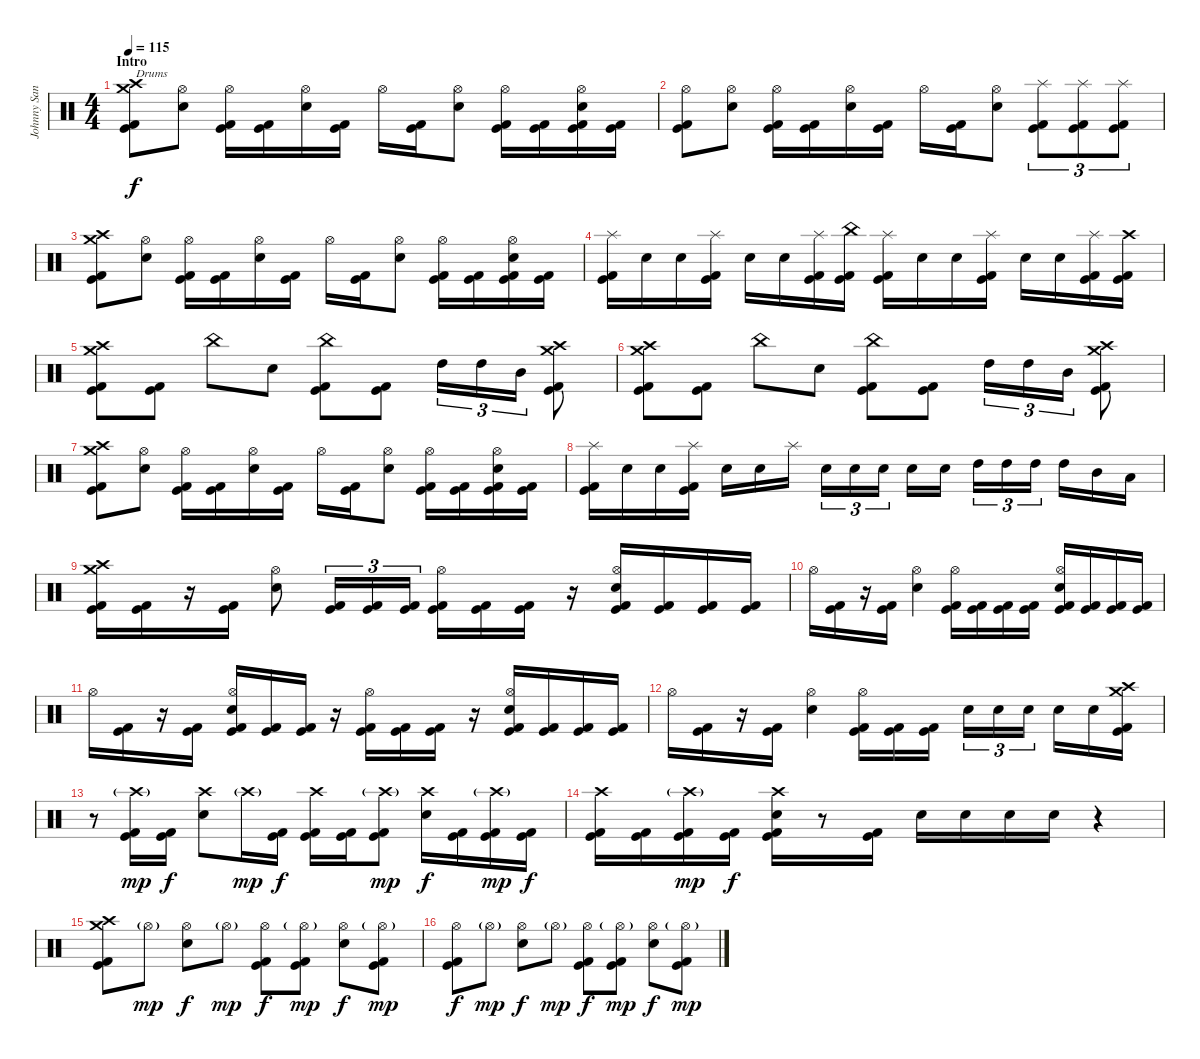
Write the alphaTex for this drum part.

\track ("Johnny Sandin" "Johnny San") {instrument percussion}
\staff {score}
\articulation defaults
\ts (4 4)
\section ("" "Intro")
\tempo 115
\clef neutral
\ks c
("Crash medium (hit)" "Crash high (hit)" "Kick (hit) 2" "Kick (hit)").8{txt "Drums" dy f} ("Hi-Hat (open)" "Snare (hit) 2").8 ("Hi-Hat (open)" "Kick (hit) 2" "Kick (hit)").16 ("Kick (hit) 2" "Kick (hit)").16 ("Hi-Hat (open)" "Snare (hit) 2").16 ("Kick (hit) 2" "Kick (hit)").16 "Hi-Hat (open)".16 ("Kick (hit) 2" "Kick (hit)").16 ("Hi-Hat (open)" "Snare (hit) 2").8 ("Hi-Hat (open)" "Kick (hit) 2" "Kick (hit)").16 ("Kick (hit) 2" "Kick (hit)").16 ("Hi-Hat (open)" "Snare (hit) 2" "Kick (hit) 2" "Kick (hit)").16 ("Kick (hit) 2" "Kick (hit)").16 |
("Hi-Hat (open)" "Kick (hit) 2" "Kick (hit)").8 ("Hi-Hat (open)" "Snare (hit) 2").8 ("Hi-Hat (open)" "Kick (hit) 2" "Kick (hit)").16 ("Kick (hit) 2" "Kick (hit)").16 ("Hi-Hat (open)" "Snare (hit) 2").16 ("Kick (hit) 2" "Kick (hit)").16 "Hi-Hat (open)".16 ("Kick (hit) 2" "Kick (hit)").16 ("Hi-Hat (open)" "Snare (hit) 2").8 ("Splash (hit)" "Kick (hit) 2" "Kick (hit)").8{tu (3 2)} ("Splash (hit)" "Kick (hit) 2" "Kick (hit)").8{tu (3 2)} ("Splash (hit)" "Kick (hit) 2" "Kick (hit)").8{tu (3 2)} |
("Crash medium (hit)" "Crash high (hit)" "Kick (hit) 2" "Kick (hit)").8 ("Hi-Hat (open)" "Snare (hit) 2").8 ("Hi-Hat (open)" "Kick (hit) 2" "Kick (hit)").16 ("Kick (hit) 2" "Kick (hit)").16 ("Hi-Hat (open)" "Snare (hit) 2").16 ("Kick (hit) 2" "Kick (hit)").16 "Hi-Hat (open)".16 ("Kick (hit) 2" "Kick (hit)").16 ("Hi-Hat (open)" "Snare (hit) 2").8 ("Hi-Hat (open)" "Kick (hit) 2" "Kick (hit)").16 ("Kick (hit) 2" "Kick (hit)").16 ("Hi-Hat (open)" "Snare (hit) 2" "Kick (hit) 2" "Kick (hit)").16 ("Kick (hit) 2" "Kick (hit)").16 |
("Splash (hit)" "Kick (hit) 2" "Kick (hit)").16 "Snare (hit) 2".16 "Snare (hit) 2".16 ("Splash (hit)" "Kick (hit) 2" "Kick (hit)").16 "Snare (hit) 2".16 "Snare (hit) 2".16 ("Splash (hit)" "Kick (hit) 2" "Kick (hit)").16 ("China (hit)" "Kick (hit) 2" "Kick (hit)").16 ("Splash (hit)" "Kick (hit) 2" "Kick (hit)").16 "Snare (hit) 2".16 "Snare (hit) 2".16 ("Splash (hit)" "Kick (hit) 2" "Kick (hit)").16 "Snare (hit) 2".16 "Snare (hit) 2".16 ("Splash (hit)" "Kick (hit) 2" "Kick (hit)").16 ("Crash high (hit)" "Kick (hit) 2" "Kick (hit)").16 |
("Crash medium (hit)" "Crash high (hit)" "Kick (hit) 2" "Kick (hit)").8 ("Kick (hit) 2" "Kick (hit)").8 "China (hit)".8 "Snare (hit) 2".8 ("China (hit)" "Kick (hit) 2" "Kick (hit)").8 ("Kick (hit) 2" "Kick (hit)").8 "High Tom (hit)".16{tu (3 2)} "High Tom (hit)".16{tu (3 2)} "Mid Tom (hit)".16{tu (3 2)} ("Crash medium (hit)" "Crash high (hit)" "Kick (hit) 2" "Kick (hit)").8 |
("Crash medium (hit)" "Crash high (hit)" "Kick (hit) 2" "Kick (hit)").8 ("Kick (hit) 2" "Kick (hit)").8 "China (hit)".8 "Snare (hit) 2".8 ("China (hit)" "Kick (hit) 2" "Kick (hit)").8 ("Kick (hit) 2" "Kick (hit)").8 "High Tom (hit)".16{tu (3 2)} "High Tom (hit)".16{tu (3 2)} "Mid Tom (hit)".16{tu (3 2)} ("Crash medium (hit)" "Crash high (hit)" "Kick (hit) 2" "Kick (hit)").8 |
("Crash medium (hit)" "Crash high (hit)" "Kick (hit) 2" "Kick (hit)").8 ("Hi-Hat (open)" "Snare (hit) 2").8 ("Hi-Hat (open)" "Kick (hit) 2" "Kick (hit)").16 ("Kick (hit) 2" "Kick (hit)").16 ("Hi-Hat (open)" "Snare (hit) 2").16 ("Kick (hit) 2" "Kick (hit)").16 "Hi-Hat (open)".16 ("Kick (hit) 2" "Kick (hit)").16 ("Hi-Hat (open)" "Snare (hit) 2").8 ("Hi-Hat (open)" "Kick (hit) 2" "Kick (hit)").16 ("Kick (hit) 2" "Kick (hit)").16 ("Hi-Hat (open)" "Snare (hit) 2" "Kick (hit) 2" "Kick (hit)").16 ("Kick (hit) 2" "Kick (hit)").16 |
("Splash (hit)" "Kick (hit) 2" "Kick (hit)").16 "Snare (hit) 2".16 "Snare (hit) 2".16 ("Splash (hit)" "Kick (hit) 2" "Kick (hit)").16 "Snare (hit) 2".16 "Snare (hit) 2".16 "Splash (hit)".16 "Snare (hit) 2".16{tu (3 2)} "Snare (hit) 2".16{tu (3 2)} "Snare (hit) 2".16{tu (3 2)} "Snare (hit) 2".16 "Snare (hit) 2".16 "High Tom (hit)".16{tu (3 2)} "High Tom (hit)".16{tu (3 2)} "High Tom (hit)".16{tu (3 2)} "High Tom (hit)".16 "Mid Tom (hit)".16 "Low Tom (hit)".16 |
("Crash medium (hit)" "Crash high (hit)" "Kick (hit) 2" "Kick (hit)").16 ("Kick (hit) 2" "Kick (hit)").16 r.16 ("Kick (hit) 2" "Kick (hit)").16 ("Hi-Hat (open)" "Snare (hit) 2").8 ("Kick (hit) 2" "Kick (hit)").16{tu (3 2)} ("Kick (hit) 2" "Kick (hit)").16{tu (3 2)} ("Kick (hit) 2" "Kick (hit)").16{tu (3 2)} ("Hi-Hat (open)" "Kick (hit) 2" "Kick (hit)").16 ("Kick (hit) 2" "Kick (hit)").16 ("Kick (hit) 2" "Kick (hit)").16 r.16 ("Hi-Hat (open)" "Snare (hit) 2" "Kick (hit) 2" "Kick (hit)").16 ("Kick (hit) 2" "Kick (hit)").16 ("Kick (hit) 2" "Kick (hit)").16 ("Kick (hit) 2" "Kick (hit)").16 |
"Hi-Hat (open)".16 ("Kick (hit) 2" "Kick (hit)").16 r.16 ("Kick (hit) 2" "Kick (hit)").16 ("Hi-Hat (open)" "Snare (hit) 2").4 ("Hi-Hat (open)" "Kick (hit) 2" "Kick (hit)").16 ("Kick (hit) 2" "Kick (hit)").16 ("Kick (hit) 2" "Kick (hit)").16 ("Kick (hit) 2" "Kick (hit)").16 ("Hi-Hat (open)" "Snare (hit) 2" "Kick (hit) 2" "Kick (hit)").16 ("Kick (hit) 2" "Kick (hit)").16 ("Kick (hit) 2" "Kick (hit)").16 ("Kick (hit) 2" "Kick (hit)").16 |
"Hi-Hat (open)".16 ("Kick (hit) 2" "Kick (hit)").16 r.16 ("Kick (hit) 2" "Kick (hit)").16 ("Hi-Hat (open)" "Snare (hit) 2" "Kick (hit) 2" "Kick (hit)").16 ("Kick (hit) 2" "Kick (hit)").16 ("Kick (hit) 2" "Kick (hit)").16 r.16 ("Hi-Hat (open)" "Kick (hit) 2" "Kick (hit)").16 ("Kick (hit) 2" "Kick (hit)").16 ("Kick (hit) 2" "Kick (hit)").16 r.16 ("Hi-Hat (open)" "Snare (hit) 2" "Kick (hit) 2" "Kick (hit)").16 ("Kick (hit) 2" "Kick (hit)").16 ("Kick (hit) 2" "Kick (hit)").16 ("Kick (hit) 2" "Kick (hit)").16 |
"Hi-Hat (open)".16 ("Kick (hit) 2" "Kick (hit)").16 r.16 ("Kick (hit) 2" "Kick (hit)").16 ("Hi-Hat (open)" "Snare (hit) 2").4 ("Hi-Hat (open)" "Kick (hit) 2" "Kick (hit)").16 ("Kick (hit) 2" "Kick (hit)").16 ("Kick (hit) 2" "Kick (hit)").16 "Snare (hit) 2".16{tu (3 2)} "Snare (hit) 2".16{tu (3 2)} "Snare (hit) 2".16{tu (3 2)} "Snare (hit) 2".16 "Snare (hit) 2".16 ("Crash medium (hit)" "Crash high (hit)" "Kick (hit) 2" "Kick (hit)").16 |
r.8 ("Crash high (hit)"{g} "Kick (hit) 2" "Kick (hit)").16{dy mp} ("Kick (hit) 2" "Kick (hit)").16{dy f} ("Crash high (hit)" "Snare (hit) 2").8 "Crash high (hit)"{g}.16{dy mp} ("Kick (hit) 2" "Kick (hit)").16{dy f} ("Crash high (hit)" "Kick (hit) 2" "Kick (hit)").16 ("Kick (hit) 2" "Kick (hit)").16 ("Crash high (hit)"{g} "Kick (hit) 2" "Kick (hit)").8{dy mp} ("Crash high (hit)" "Snare (hit) 2").16{dy f} ("Kick (hit) 2" "Kick (hit)").16 ("Crash high (hit)"{g} "Kick (hit) 2" "Kick (hit)").16{dy mp} ("Kick (hit) 2" "Kick (hit)").16{dy f} |
("Crash high (hit)" "Kick (hit) 2" "Kick (hit)").16 ("Kick (hit) 2" "Kick (hit)").16 ("Crash high (hit)"{g} "Kick (hit) 2" "Kick (hit)").16{dy mp} ("Kick (hit) 2" "Kick (hit)").16{dy f} ("Crash high (hit)" "Snare (hit) 2" "Kick (hit) 2" "Kick (hit)").16 r.8 ("Kick (hit) 2" "Kick (hit)").16 "Snare (hit) 2".16 "Snare (hit) 2".16 "Snare (hit) 2".16 "Snare (hit) 2".16 r.4 |
("Crash medium (hit)" "Crash high (hit)" "Kick (hit) 2" "Kick (hit)").8 "Hi-Hat (open)"{g}.8{dy mp} ("Hi-Hat (open)" "Snare (hit) 2").8{dy f} "Hi-Hat (open)"{g}.8{dy mp} ("Hi-Hat (open)" "Kick (hit) 2" "Kick (hit)").8{dy f} ("Hi-Hat (open)"{g} "Kick (hit) 2" "Kick (hit)").8{dy mp} ("Hi-Hat (open)" "Snare (hit) 2").8{dy f} ("Hi-Hat (open)"{g} "Kick (hit) 2" "Kick (hit)").8{dy mp} |
("Hi-Hat (open)" "Kick (hit) 2" "Kick (hit)").8{dy f} "Hi-Hat (open)"{g}.8{dy mp} ("Hi-Hat (open)" "Snare (hit) 2").8{dy f} "Hi-Hat (open)"{g}.8{dy mp} ("Hi-Hat (open)" "Kick (hit) 2" "Kick (hit)").8{dy f} ("Hi-Hat (open)"{g} "Kick (hit) 2" "Kick (hit)").8{dy mp} ("Hi-Hat (open)" "Snare (hit) 2").8{dy f} ("Hi-Hat (open)"{g} "Kick (hit) 2" "Kick (hit)").8{dy mp}
